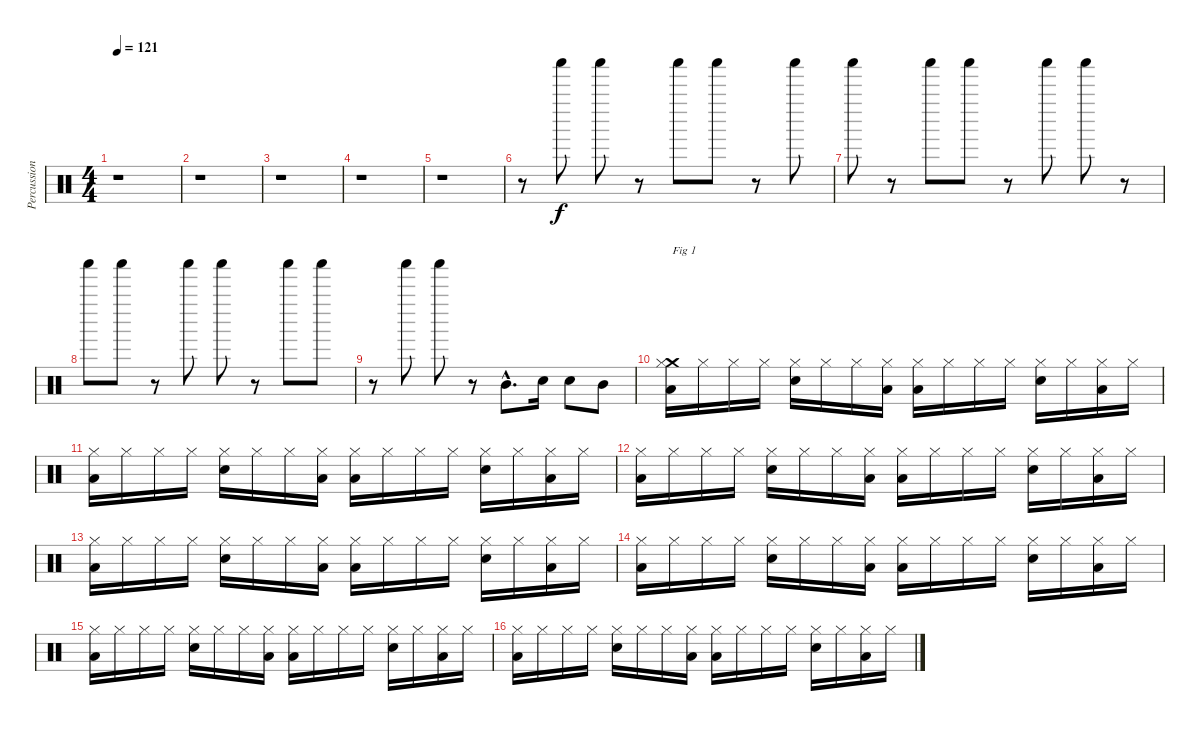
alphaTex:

\track ("Percussions" "Percussion") {instrument percussion}
\staff {score}
\articulation defaults
\ts (4 4)
\tempo 121
\clef neutral
\ks c
r.1{dy f} |
r.1 |
r.1 |
r.1 |
r.1 |
r.8 "Shaker (hit)".8 "Shaker (hit)".8 r.8 "Shaker (hit)".8 "Shaker (hit)".8 r.8 "Shaker (hit)".8 |
"Shaker (hit)".8 r.8 "Shaker (hit)".8 "Shaker (hit)".8 r.8 "Shaker (hit)".8 "Shaker (hit)".8 r.8 |
"Shaker (hit)".8 "Shaker (hit)".8 r.8 "Shaker (hit)".8 "Shaker (hit)".8 r.8 "Shaker (hit)".8 "Shaker (hit)".8 |
r.8 "Shaker (hit)".8 "Shaker (hit)".8 r.8 "Mid Tom (hit)"{hac}.8{d} "Electric Snare (hit)".16 "Electric Snare (hit)".8 "Mid Tom (hit)".8 |
("Low Floor Tom (hit)" "Crash medium (hit)" "Hi-Hat (closed)").16{txt "Fig 1"} "Hi-Hat (closed)".16 "Hi-Hat (closed)".16 "Hi-Hat (closed)".16 ("Electric Snare (hit)" "Hi-Hat (closed)").16 "Hi-Hat (closed)".16 "Hi-Hat (closed)".16 ("Low Floor Tom (hit)" "Hi-Hat (closed)").16 ("Low Floor Tom (hit)" "Hi-Hat (closed)").16 "Hi-Hat (closed)".16 "Hi-Hat (closed)".16 "Hi-Hat (closed)".16 ("Electric Snare (hit)" "Hi-Hat (closed)").16 "Hi-Hat (closed)".16 ("Low Floor Tom (hit)" "Hi-Hat (closed)").16 "Hi-Hat (closed)".16 |
("Low Floor Tom (hit)" "Hi-Hat (closed)").16 "Hi-Hat (closed)".16 "Hi-Hat (closed)".16 "Hi-Hat (closed)".16 ("Electric Snare (hit)" "Hi-Hat (closed)").16 "Hi-Hat (closed)".16 "Hi-Hat (closed)".16 ("Low Floor Tom (hit)" "Hi-Hat (closed)").16 ("Low Floor Tom (hit)" "Hi-Hat (closed)").16 "Hi-Hat (closed)".16 "Hi-Hat (closed)".16 "Hi-Hat (closed)".16 ("Electric Snare (hit)" "Hi-Hat (closed)").16 "Hi-Hat (closed)".16 ("Low Floor Tom (hit)" "Hi-Hat (closed)").16 "Hi-Hat (closed)".16 |
("Low Floor Tom (hit)" "Hi-Hat (closed)").16 "Hi-Hat (closed)".16 "Hi-Hat (closed)".16 "Hi-Hat (closed)".16 ("Electric Snare (hit)" "Hi-Hat (closed)").16 "Hi-Hat (closed)".16 "Hi-Hat (closed)".16 ("Low Floor Tom (hit)" "Hi-Hat (closed)").16 ("Low Floor Tom (hit)" "Hi-Hat (closed)").16 "Hi-Hat (closed)".16 "Hi-Hat (closed)".16 "Hi-Hat (closed)".16 ("Electric Snare (hit)" "Hi-Hat (closed)").16 "Hi-Hat (closed)".16 ("Low Floor Tom (hit)" "Hi-Hat (closed)").16 "Hi-Hat (closed)".16 |
("Low Floor Tom (hit)" "Hi-Hat (closed)").16 "Hi-Hat (closed)".16 "Hi-Hat (closed)".16 "Hi-Hat (closed)".16 ("Electric Snare (hit)" "Hi-Hat (closed)").16 "Hi-Hat (closed)".16 "Hi-Hat (closed)".16 ("Low Floor Tom (hit)" "Hi-Hat (closed)").16 ("Low Floor Tom (hit)" "Hi-Hat (closed)").16 "Hi-Hat (closed)".16 "Hi-Hat (closed)".16 "Hi-Hat (closed)".16 ("Electric Snare (hit)" "Hi-Hat (closed)").16 "Hi-Hat (closed)".16 ("Low Floor Tom (hit)" "Hi-Hat (closed)").16 "Hi-Hat (closed)".16 |
("Low Floor Tom (hit)" "Hi-Hat (closed)").16 "Hi-Hat (closed)".16 "Hi-Hat (closed)".16 "Hi-Hat (closed)".16 ("Electric Snare (hit)" "Hi-Hat (closed)").16 "Hi-Hat (closed)".16 "Hi-Hat (closed)".16 ("Low Floor Tom (hit)" "Hi-Hat (closed)").16 ("Low Floor Tom (hit)" "Hi-Hat (closed)").16 "Hi-Hat (closed)".16 "Hi-Hat (closed)".16 "Hi-Hat (closed)".16 ("Electric Snare (hit)" "Hi-Hat (closed)").16 "Hi-Hat (closed)".16 ("Low Floor Tom (hit)" "Hi-Hat (closed)").16 "Hi-Hat (closed)".16 |
("Low Floor Tom (hit)" "Hi-Hat (closed)").16 "Hi-Hat (closed)".16 "Hi-Hat (closed)".16 "Hi-Hat (closed)".16 ("Electric Snare (hit)" "Hi-Hat (closed)").16 "Hi-Hat (closed)".16 "Hi-Hat (closed)".16 ("Low Floor Tom (hit)" "Hi-Hat (closed)").16 ("Low Floor Tom (hit)" "Hi-Hat (closed)").16 "Hi-Hat (closed)".16 "Hi-Hat (closed)".16 "Hi-Hat (closed)".16 ("Electric Snare (hit)" "Hi-Hat (closed)").16 "Hi-Hat (closed)".16 ("Low Floor Tom (hit)" "Hi-Hat (closed)").16 "Hi-Hat (closed)".16 |
("Low Floor Tom (hit)" "Hi-Hat (closed)").16 "Hi-Hat (closed)".16 "Hi-Hat (closed)".16 "Hi-Hat (closed)".16 ("Electric Snare (hit)" "Hi-Hat (closed)").16 "Hi-Hat (closed)".16 "Hi-Hat (closed)".16 ("Low Floor Tom (hit)" "Hi-Hat (closed)").16 ("Low Floor Tom (hit)" "Hi-Hat (closed)").16 "Hi-Hat (closed)".16 "Hi-Hat (closed)".16 "Hi-Hat (closed)".16 ("Electric Snare (hit)" "Hi-Hat (closed)").16 "Hi-Hat (closed)".16 ("Low Floor Tom (hit)" "Hi-Hat (closed)").16 "Hi-Hat (closed)".16
